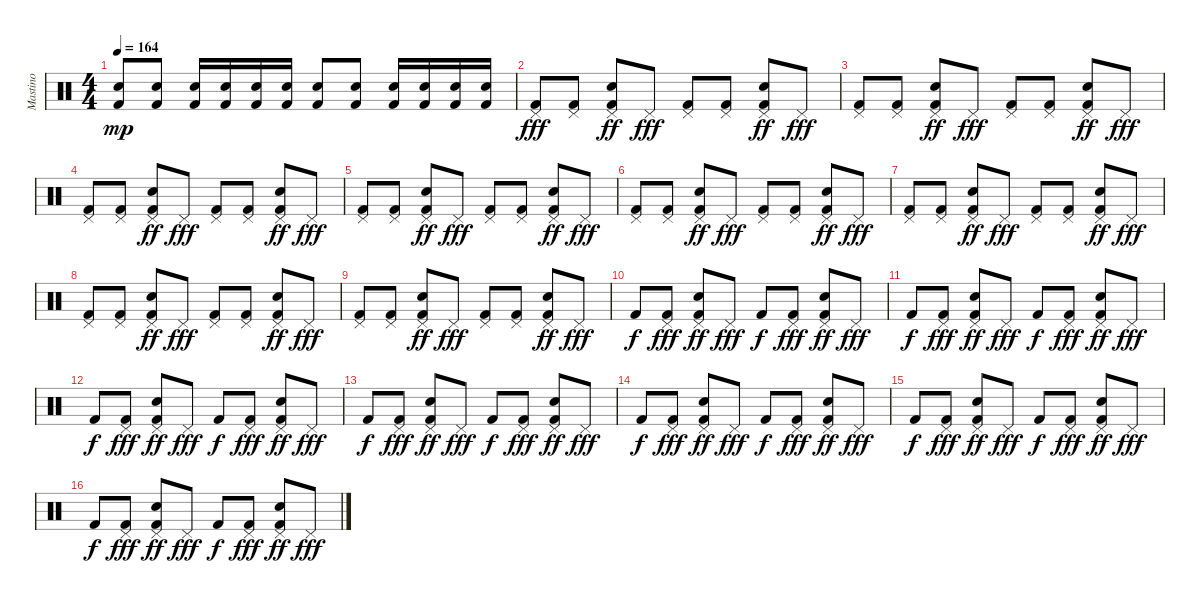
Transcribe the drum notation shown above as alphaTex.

\track ("Mastino" "Mastino") {instrument percussion}
\staff {score}
\articulation defaults
\ts (4 4)
\tempo 164
\clef neutral
\ks c
("Electric Snare (hit)" "Kick (hit) 2").8{dy mp} ("Electric Snare (hit)" "Kick (hit) 2").8 ("Electric Snare (hit)" "Kick (hit) 2").16 ("Electric Snare (hit)" "Kick (hit) 2").16 ("Electric Snare (hit)" "Kick (hit) 2").16 ("Electric Snare (hit)" "Kick (hit) 2").16 ("Electric Snare (hit)" "Kick (hit) 2").8 ("Electric Snare (hit)" "Kick (hit) 2").8 ("Electric Snare (hit)" "Kick (hit) 2").16 ("Electric Snare (hit)" "Kick (hit) 2").16 ("Electric Snare (hit)" "Kick (hit) 2").16 ("Electric Snare (hit)" "Kick (hit) 2").16 |
("Pedal Hi-Hat (hit)" "Kick (hit) 2").8{dy fff} ("Pedal Hi-Hat (hit)" "Kick (hit) 2").8 ("Pedal Hi-Hat (hit)" "Electric Snare (hit)" "Kick (hit) 2").8{dy ff} "Pedal Hi-Hat (hit)".8{dy fff} ("Pedal Hi-Hat (hit)" "Kick (hit) 2").8 ("Pedal Hi-Hat (hit)" "Kick (hit) 2").8 ("Pedal Hi-Hat (hit)" "Electric Snare (hit)" "Kick (hit) 2").8{dy ff} "Pedal Hi-Hat (hit)".8{dy fff} |
("Pedal Hi-Hat (hit)" "Kick (hit) 2").8 ("Pedal Hi-Hat (hit)" "Kick (hit) 2").8 ("Pedal Hi-Hat (hit)" "Electric Snare (hit)" "Kick (hit) 2").8{dy ff} "Pedal Hi-Hat (hit)".8{dy fff} ("Pedal Hi-Hat (hit)" "Kick (hit) 2").8 ("Pedal Hi-Hat (hit)" "Kick (hit) 2").8 ("Pedal Hi-Hat (hit)" "Electric Snare (hit)" "Kick (hit) 2").8{dy ff} "Pedal Hi-Hat (hit)".8{dy fff} |
("Pedal Hi-Hat (hit)" "Kick (hit) 2").8 ("Pedal Hi-Hat (hit)" "Kick (hit) 2").8 ("Pedal Hi-Hat (hit)" "Electric Snare (hit)" "Kick (hit) 2").8{dy ff} "Pedal Hi-Hat (hit)".8{dy fff} ("Pedal Hi-Hat (hit)" "Kick (hit) 2").8 ("Pedal Hi-Hat (hit)" "Kick (hit) 2").8 ("Pedal Hi-Hat (hit)" "Electric Snare (hit)" "Kick (hit) 2").8{dy ff} "Pedal Hi-Hat (hit)".8{dy fff} |
("Pedal Hi-Hat (hit)" "Kick (hit) 2").8 ("Pedal Hi-Hat (hit)" "Kick (hit) 2").8 ("Pedal Hi-Hat (hit)" "Electric Snare (hit)" "Kick (hit) 2").8{dy ff} "Pedal Hi-Hat (hit)".8{dy fff} ("Pedal Hi-Hat (hit)" "Kick (hit) 2").8 ("Pedal Hi-Hat (hit)" "Kick (hit) 2").8 ("Pedal Hi-Hat (hit)" "Electric Snare (hit)" "Kick (hit) 2").8{dy ff} "Pedal Hi-Hat (hit)".8{dy fff} |
("Pedal Hi-Hat (hit)" "Kick (hit) 2").8 ("Pedal Hi-Hat (hit)" "Kick (hit) 2").8 ("Pedal Hi-Hat (hit)" "Electric Snare (hit)" "Kick (hit) 2").8{dy ff} "Pedal Hi-Hat (hit)".8{dy fff} ("Pedal Hi-Hat (hit)" "Kick (hit) 2").8 ("Pedal Hi-Hat (hit)" "Kick (hit) 2").8 ("Pedal Hi-Hat (hit)" "Electric Snare (hit)" "Kick (hit) 2").8{dy ff} "Pedal Hi-Hat (hit)".8{dy fff} |
("Pedal Hi-Hat (hit)" "Kick (hit) 2").8 ("Pedal Hi-Hat (hit)" "Kick (hit) 2").8 ("Pedal Hi-Hat (hit)" "Electric Snare (hit)" "Kick (hit) 2").8{dy ff} "Pedal Hi-Hat (hit)".8{dy fff} ("Pedal Hi-Hat (hit)" "Kick (hit) 2").8 ("Pedal Hi-Hat (hit)" "Kick (hit) 2").8 ("Pedal Hi-Hat (hit)" "Electric Snare (hit)" "Kick (hit) 2").8{dy ff} "Pedal Hi-Hat (hit)".8{dy fff} |
("Pedal Hi-Hat (hit)" "Kick (hit) 2").8 ("Pedal Hi-Hat (hit)" "Kick (hit) 2").8 ("Pedal Hi-Hat (hit)" "Electric Snare (hit)" "Kick (hit) 2").8{dy ff} "Pedal Hi-Hat (hit)".8{dy fff} ("Pedal Hi-Hat (hit)" "Kick (hit) 2").8 ("Pedal Hi-Hat (hit)" "Kick (hit) 2").8 ("Pedal Hi-Hat (hit)" "Electric Snare (hit)" "Kick (hit) 2").8{dy ff} "Pedal Hi-Hat (hit)".8{dy fff} |
("Pedal Hi-Hat (hit)" "Kick (hit) 2").8 ("Pedal Hi-Hat (hit)" "Kick (hit) 2").8 ("Pedal Hi-Hat (hit)" "Electric Snare (hit)" "Kick (hit) 2").8{dy ff} "Pedal Hi-Hat (hit)".8{dy fff} ("Pedal Hi-Hat (hit)" "Kick (hit) 2").8 ("Pedal Hi-Hat (hit)" "Kick (hit) 2").8 ("Pedal Hi-Hat (hit)" "Electric Snare (hit)" "Kick (hit) 2").8{dy ff} "Pedal Hi-Hat (hit)".8{dy fff} |
"Kick (hit) 2".8{dy f} ("Pedal Hi-Hat (hit)" "Kick (hit) 2").8{dy fff} ("Pedal Hi-Hat (hit)" "Electric Snare (hit)" "Kick (hit) 2").8{dy ff} "Pedal Hi-Hat (hit)".8{dy fff} "Kick (hit) 2".8{dy f} ("Pedal Hi-Hat (hit)" "Kick (hit) 2").8{dy fff} ("Pedal Hi-Hat (hit)" "Electric Snare (hit)" "Kick (hit) 2").8{dy ff} "Pedal Hi-Hat (hit)".8{dy fff} |
"Kick (hit) 2".8{dy f} ("Pedal Hi-Hat (hit)" "Kick (hit) 2").8{dy fff} ("Pedal Hi-Hat (hit)" "Electric Snare (hit)" "Kick (hit) 2").8{dy ff} "Pedal Hi-Hat (hit)".8{dy fff} "Kick (hit) 2".8{dy f} ("Pedal Hi-Hat (hit)" "Kick (hit) 2").8{dy fff} ("Pedal Hi-Hat (hit)" "Electric Snare (hit)" "Kick (hit) 2").8{dy ff} "Pedal Hi-Hat (hit)".8{dy fff} |
"Kick (hit) 2".8{dy f} ("Pedal Hi-Hat (hit)" "Kick (hit) 2").8{dy fff} ("Pedal Hi-Hat (hit)" "Electric Snare (hit)" "Kick (hit) 2").8{dy ff} "Pedal Hi-Hat (hit)".8{dy fff} "Kick (hit) 2".8{dy f} ("Pedal Hi-Hat (hit)" "Kick (hit) 2").8{dy fff} ("Pedal Hi-Hat (hit)" "Electric Snare (hit)" "Kick (hit) 2").8{dy ff} "Pedal Hi-Hat (hit)".8{dy fff} |
"Kick (hit) 2".8{dy f} ("Pedal Hi-Hat (hit)" "Kick (hit) 2").8{dy fff} ("Pedal Hi-Hat (hit)" "Electric Snare (hit)" "Kick (hit) 2").8{dy ff} "Pedal Hi-Hat (hit)".8{dy fff} "Kick (hit) 2".8{dy f} ("Pedal Hi-Hat (hit)" "Kick (hit) 2").8{dy fff} ("Pedal Hi-Hat (hit)" "Electric Snare (hit)" "Kick (hit) 2").8{dy ff} "Pedal Hi-Hat (hit)".8{dy fff} |
"Kick (hit) 2".8{dy f} ("Pedal Hi-Hat (hit)" "Kick (hit) 2").8{dy fff} ("Pedal Hi-Hat (hit)" "Electric Snare (hit)" "Kick (hit) 2").8{dy ff} "Pedal Hi-Hat (hit)".8{dy fff} "Kick (hit) 2".8{dy f} ("Pedal Hi-Hat (hit)" "Kick (hit) 2").8{dy fff} ("Pedal Hi-Hat (hit)" "Electric Snare (hit)" "Kick (hit) 2").8{dy ff} "Pedal Hi-Hat (hit)".8{dy fff} |
"Kick (hit) 2".8{dy f} ("Pedal Hi-Hat (hit)" "Kick (hit) 2").8{dy fff} ("Pedal Hi-Hat (hit)" "Electric Snare (hit)" "Kick (hit) 2").8{dy ff} "Pedal Hi-Hat (hit)".8{dy fff} "Kick (hit) 2".8{dy f} ("Pedal Hi-Hat (hit)" "Kick (hit) 2").8{dy fff} ("Pedal Hi-Hat (hit)" "Electric Snare (hit)" "Kick (hit) 2").8{dy ff} "Pedal Hi-Hat (hit)".8{dy fff} |
"Kick (hit) 2".8{dy f} ("Pedal Hi-Hat (hit)" "Kick (hit) 2").8{dy fff} ("Pedal Hi-Hat (hit)" "Electric Snare (hit)" "Kick (hit) 2").8{dy ff} "Pedal Hi-Hat (hit)".8{dy fff} "Kick (hit) 2".8{dy f} ("Pedal Hi-Hat (hit)" "Kick (hit) 2").8{dy fff} ("Pedal Hi-Hat (hit)" "Electric Snare (hit)" "Kick (hit) 2").8{dy ff} "Pedal Hi-Hat (hit)".8{dy fff}
